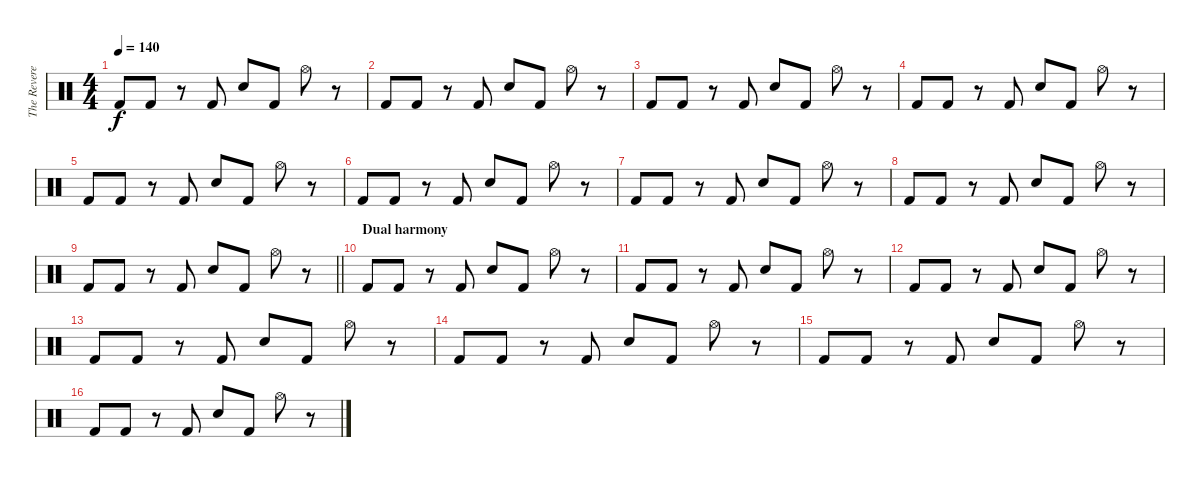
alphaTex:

\track ("The Reverend" "The Revere") {instrument percussion}
\staff {score}
\articulation defaults
\ts (4 4)
\tempo 140
\clef neutral
\ks c "Kick (hit) 2".8{dy f} "Kick (hit) 2".8
r.8 "Kick (hit) 2".8 "Snare (hit) 2".8 "Kick (hit) 2".8 "Hi-Hat (open)".8 r.8 |
"Kick (hit) 2".8 "Kick (hit) 2".8 r.8 "Kick (hit) 2".8 "Snare (hit) 2".8 "Kick (hit) 2".8 "Hi-Hat (open)".8 r.8 |
"Kick (hit) 2".8 "Kick (hit) 2".8 r.8 "Kick (hit) 2".8 "Snare (hit) 2".8 "Kick (hit) 2".8 "Hi-Hat (open)".8 r.8 |
"Kick (hit) 2".8 "Kick (hit) 2".8 r.8 "Kick (hit) 2".8 "Snare (hit) 2".8 "Kick (hit) 2".8 "Hi-Hat (open)".8 r.8 |
"Kick (hit) 2".8 "Kick (hit) 2".8 r.8 "Kick (hit) 2".8 "Snare (hit) 2".8 "Kick (hit) 2".8 "Hi-Hat (open)".8 r.8 |
"Kick (hit) 2".8 "Kick (hit) 2".8 r.8 "Kick (hit) 2".8 "Snare (hit) 2".8 "Kick (hit) 2".8 "Hi-Hat (open)".8 r.8 |
"Kick (hit) 2".8 "Kick (hit) 2".8 r.8 "Kick (hit) 2".8 "Snare (hit) 2".8 "Kick (hit) 2".8 "Hi-Hat (open)".8 r.8 |
"Kick (hit) 2".8 "Kick (hit) 2".8 r.8 "Kick (hit) 2".8 "Snare (hit) 2".8 "Kick (hit) 2".8 "Hi-Hat (open)".8 r.8 |
\barLineRight lightlight "Kick (hit) 2".8 "Kick (hit) 2".8
r.8 "Kick (hit) 2".8 "Snare (hit) 2".8 "Kick (hit) 2".8 "Hi-Hat (open)".8 r.8 |
\section ("" "Dual harmony")
"Kick (hit) 2".8{volume 16} "Kick (hit) 2".8 r.8 "Kick (hit) 2".8 "Snare (hit) 2".8 "Kick (hit) 2".8 "Hi-Hat (open)".8 r.8 |
"Kick (hit) 2".8 "Kick (hit) 2".8 r.8 "Kick (hit) 2".8 "Snare (hit) 2".8 "Kick (hit) 2".8 "Hi-Hat (open)".8 r.8 |
"Kick (hit) 2".8 "Kick (hit) 2".8 r.8 "Kick (hit) 2".8 "Snare (hit) 2".8 "Kick (hit) 2".8 "Hi-Hat (open)".8 r.8 |
"Kick (hit) 2".8 "Kick (hit) 2".8 r.8 "Kick (hit) 2".8 "Snare (hit) 2".8 "Kick (hit) 2".8 "Hi-Hat (open)".8 r.8 |
"Kick (hit) 2".8 "Kick (hit) 2".8 r.8 "Kick (hit) 2".8 "Snare (hit) 2".8 "Kick (hit) 2".8 "Hi-Hat (open)".8 r.8 |
"Kick (hit) 2".8 "Kick (hit) 2".8 r.8 "Kick (hit) 2".8 "Snare (hit) 2".8 "Kick (hit) 2".8 "Hi-Hat (open)".8 r.8 |
"Kick (hit) 2".8 "Kick (hit) 2".8 r.8 "Kick (hit) 2".8 "Snare (hit) 2".8 "Kick (hit) 2".8 "Hi-Hat (open)".8 r.8
